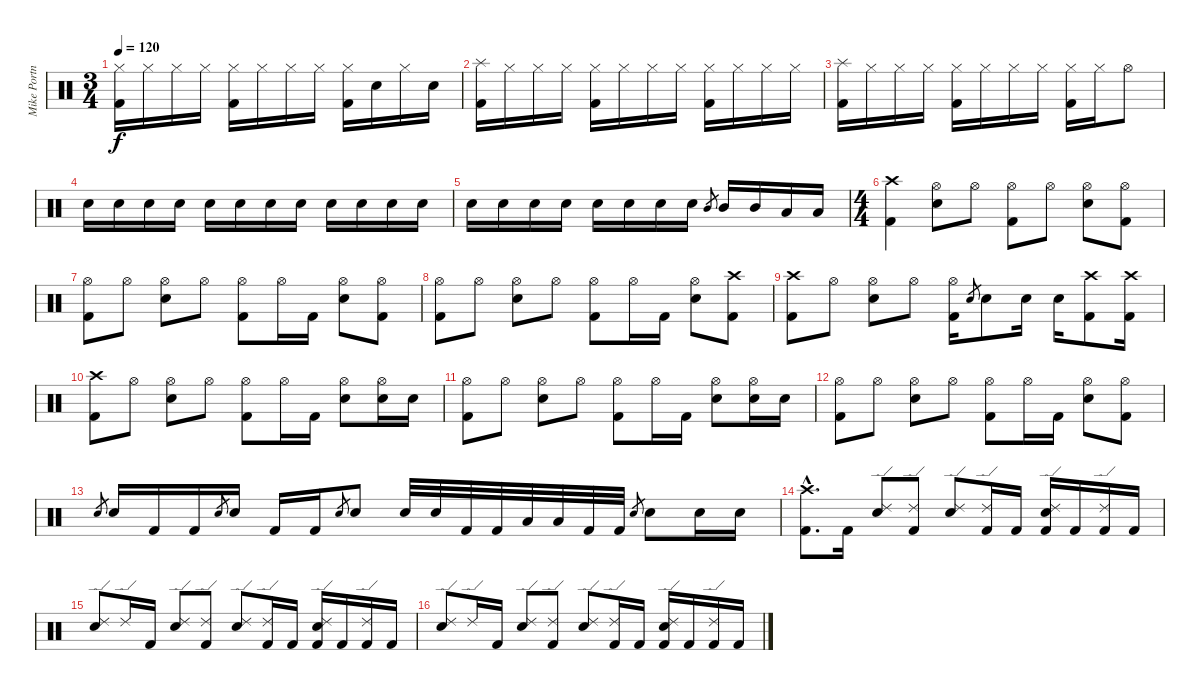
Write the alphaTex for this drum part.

\track ("Mike Portnoy" "Mike Portn") {instrument percussion}
\staff {score}
\articulation defaults
\ts (3 4)
\tempo 120
\clef neutral
\ks c
("Hi-Hat (closed)" "Kick (hit) 2").16{dy f} "Hi-Hat (closed)".16 "Hi-Hat (closed)".16 "Hi-Hat (closed)".16 ("Hi-Hat (closed)" "Kick (hit) 2").16 "Hi-Hat (closed)".16 "Hi-Hat (closed)".16 "Hi-Hat (closed)".16 ("Hi-Hat (closed)" "Kick (hit) 2").16 "Snare (hit) 2".16 "Hi-Hat (closed)".16 "Snare (hit) 2".16 |
("Splash (hit)" "Kick (hit) 2").16 "Hi-Hat (closed)".16 "Hi-Hat (closed)".16 "Hi-Hat (closed)".16 ("Hi-Hat (closed)" "Kick (hit) 2").16 "Hi-Hat (closed)".16 "Hi-Hat (closed)".16 "Hi-Hat (closed)".16 ("Hi-Hat (closed)" "Kick (hit) 2").16 "Hi-Hat (closed)".16 "Hi-Hat (closed)".16 "Hi-Hat (closed)".16 |
("Splash (hit)" "Kick (hit) 2").16 "Hi-Hat (closed)".16 "Hi-Hat (closed)".16 "Hi-Hat (closed)".16 ("Hi-Hat (closed)" "Kick (hit) 2").16 "Hi-Hat (closed)".16 "Hi-Hat (closed)".16 "Hi-Hat (closed)".16 ("Hi-Hat (closed)" "Kick (hit) 2").16 "Hi-Hat (closed)".16 "Hi-Hat (open)".8 |
"Snare (hit) 2".16 "Snare (hit) 2".16 "Snare (hit) 2".16 "Snare (hit) 2".16 "Snare (hit) 2".16 "Snare (hit) 2".16 "Snare (hit) 2".16 "Snare (hit) 2".16 "Snare (hit) 2".16 "Snare (hit) 2".16 "Snare (hit) 2".16 "Snare (hit) 2".16 |
"Snare (hit) 2".16 "Snare (hit) 2".16 "Snare (hit) 2".16 "Snare (hit) 2".16 "Snare (hit) 2".16 "Snare (hit) 2".16 "Snare (hit) 2".16 "Snare (hit) 2".16 "Mid Tom (hit)".8{gr} "Mid Tom (hit)".16 "Mid Tom (hit)".16 "Low Tom (hit)".16 "Low Tom (hit)".16 |
\ts (4 4)
("Crash high (hit)" "Kick (hit) 2").4 ("Hi-Hat (open)" "Snare (hit) 2").8 "Hi-Hat (open)".8 ("Hi-Hat (open)" "Kick (hit) 2").8 "Hi-Hat (open)".8 ("Hi-Hat (open)" "Snare (hit) 2").8 ("Hi-Hat (open)" "Kick (hit) 2").8 |
("Hi-Hat (open)" "Kick (hit) 2").8 "Hi-Hat (open)".8 ("Hi-Hat (open)" "Snare (hit) 2").8 "Hi-Hat (open)".8 ("Hi-Hat (open)" "Kick (hit) 2").8 "Hi-Hat (open)".16 "Kick (hit) 2".16 ("Hi-Hat (open)" "Snare (hit) 2").8 ("Hi-Hat (open)" "Kick (hit) 2").8 |
("Hi-Hat (open)" "Kick (hit) 2").8 "Hi-Hat (open)".8 ("Hi-Hat (open)" "Snare (hit) 2").8 "Hi-Hat (open)".8 ("Hi-Hat (open)" "Kick (hit) 2").8 "Hi-Hat (open)".16 "Kick (hit) 2".16 ("Hi-Hat (open)" "Snare (hit) 2").8 ("Crash high (hit)" "Kick (hit) 2").8 |
("Crash high (hit)" "Kick (hit) 2").8 "Hi-Hat (open)".8 ("Hi-Hat (open)" "Snare (hit) 2").8 "Hi-Hat (open)".8 ("Hi-Hat (open)" "Kick (hit) 2").16 "Snare (hit) 2".8{gr} "Snare (hit) 2".8 "Snare (hit) 2".16 "Snare (hit) 2".16 ("Crash high (hit)" "Kick (hit) 2").8 ("Crash high (hit)" "Kick (hit) 2").16 |
("Crash high (hit)" "Kick (hit) 2").8 "Hi-Hat (open)".8 ("Hi-Hat (open)" "Snare (hit) 2").8 "Hi-Hat (open)".8 ("Hi-Hat (open)" "Kick (hit) 2").8 "Hi-Hat (open)".16 "Kick (hit) 2".16 ("Hi-Hat (open)" "Snare (hit) 2").8 ("Hi-Hat (open)" "Snare (hit) 2").16 "Snare (hit) 2".16 |
("Hi-Hat (open)" "Kick (hit) 2").8 "Hi-Hat (open)".8 ("Hi-Hat (open)" "Snare (hit) 2").8 "Hi-Hat (open)".8 ("Hi-Hat (open)" "Kick (hit) 2").8 "Hi-Hat (open)".16 "Kick (hit) 2".16 ("Hi-Hat (open)" "Snare (hit) 2").8 ("Hi-Hat (open)" "Snare (hit) 2").16 "Snare (hit) 2".16 |
("Hi-Hat (open)" "Kick (hit) 2").8 "Hi-Hat (open)".8 ("Hi-Hat (open)" "Snare (hit) 2").8 "Hi-Hat (open)".8 ("Hi-Hat (open)" "Kick (hit) 2").8 "Hi-Hat (open)".16 "Kick (hit) 2".16 ("Hi-Hat (open)" "Snare (hit) 2").8 ("Hi-Hat (open)" "Kick (hit) 2").8 |
"Snare (hit) 2".8{gr} "Snare (hit) 2".16 "Kick (hit) 2".16 "Kick (hit) 2".16 "Snare (hit) 2".8{gr} "Snare (hit) 2".16 "Kick (hit) 2".16 "Kick (hit) 2".16 "Snare (hit) 2".8{gr} "Snare (hit) 2".8 "Snare (hit) 2".32 "Snare (hit) 2".32 "Kick (hit) 2".32 "Kick (hit) 2".32 "Low Floor Tom (hit)".32 "Low Floor Tom (hit)".32 "Kick (hit) 2".32 "Kick (hit) 2".32 "Snare (hit) 2".8{gr} "Snare (hit) 2".8 "Snare (hit) 2".16 "Snare (hit) 2".16 |
("Crash high (hit)"{hac} "Kick (hit) 2"{hac}).8{d} "Kick (hit) 2".16 ("Ride (edge) 2" "Snare (hit) 2").8 ("Ride (edge) 2" "Kick (hit) 2").8 ("Ride (edge) 2" "Snare (hit) 2").8 ("Ride (edge) 2" "Kick (hit) 2").16 "Kick (hit) 2".16 ("Ride (edge) 2" "Snare (hit) 2" "Kick (hit) 2").16 "Kick (hit) 2".16 ("Ride (edge) 2" "Kick (hit) 2").16 "Kick (hit) 2".16 |
("Ride (edge) 2" "Snare (hit) 2").8 "Ride (edge) 2".16 "Kick (hit) 2".16 ("Ride (edge) 2" "Snare (hit) 2").8 ("Ride (edge) 2" "Kick (hit) 2").8 ("Ride (edge) 2" "Snare (hit) 2").8 ("Ride (edge) 2" "Kick (hit) 2").16 "Kick (hit) 2".16 ("Ride (edge) 2" "Snare (hit) 2" "Kick (hit) 2").16 "Kick (hit) 2".16 ("Ride (edge) 2" "Kick (hit) 2").16 "Kick (hit) 2".16 |
("Ride (edge) 2" "Snare (hit) 2").8 "Ride (edge) 2".16 "Kick (hit) 2".16 ("Ride (edge) 2" "Snare (hit) 2").8 ("Ride (edge) 2" "Kick (hit) 2").8 ("Ride (edge) 2" "Snare (hit) 2").8 ("Ride (edge) 2" "Kick (hit) 2").16 "Kick (hit) 2".16 ("Ride (edge) 2" "Snare (hit) 2" "Kick (hit) 2").16 "Kick (hit) 2".16 ("Ride (edge) 2" "Kick (hit) 2").16 "Kick (hit) 2".16
